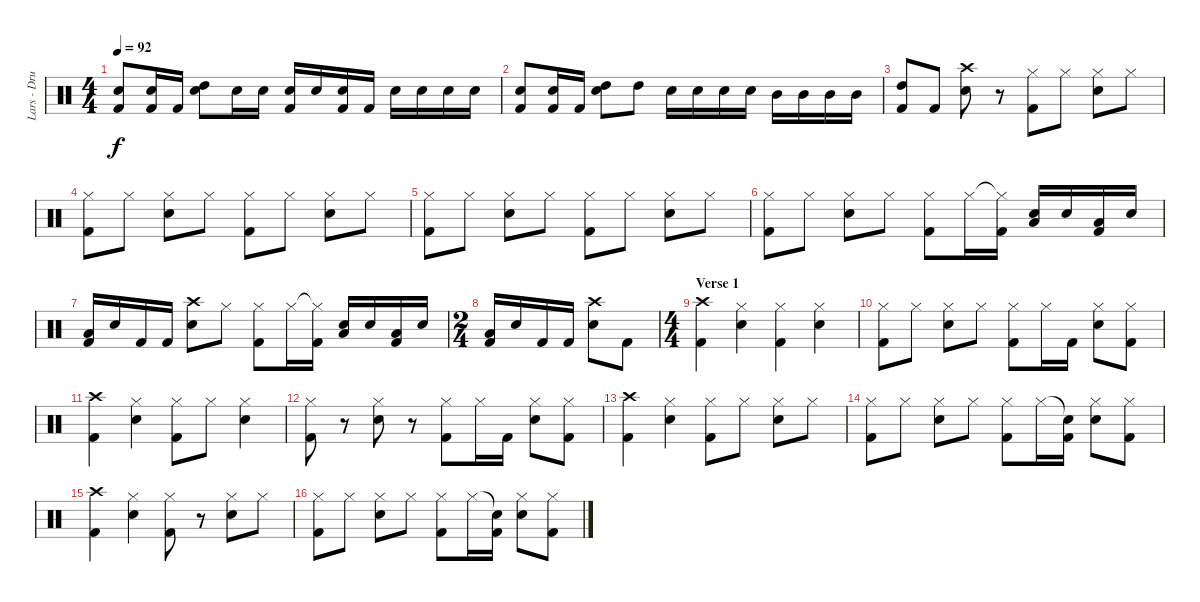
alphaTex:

\track ("Lars - Drums" "Lars - Dru") {instrument percussion}
\staff {score}
\articulation defaults
\ts (4 4)
\tempo 92
\clef neutral
\ks c
("Electric Snare (hit)" "Kick (hit) 2").8{dy f} ("Electric Snare (hit)" "Kick (hit) 2").16 "Kick (hit) 2".16 ("High Tom (hit)" "Electric Snare (hit)").8 "Electric Snare (hit)".16 "Electric Snare (hit)".16 ("Electric Snare (hit)" "Kick (hit) 2").16 "Electric Snare (hit)".16 ("Electric Snare (hit)" "Kick (hit) 2").16 "Kick (hit) 2".16 "Electric Snare (hit)".16 "Electric Snare (hit)".16 "Electric Snare (hit)".16 "Electric Snare (hit)".16 |
("Electric Snare (hit)" "Kick (hit) 2").8 ("Electric Snare (hit)" "Kick (hit) 2").16 "Kick (hit) 2".16 ("High Tom (hit)" "Electric Snare (hit)").8 "High Tom (hit)".8 "Electric Snare (hit)".16 "Electric Snare (hit)".16 "Electric Snare (hit)".16 "Electric Snare (hit)".16 "Mid Tom (hit)".16 "Mid Tom (hit)".16 "Mid Tom (hit)".16 "Mid Tom (hit)".16 |
("High Tom (hit)" "Kick (hit) 2").8 "Kick (hit) 2".8 ("Crash high (hit)" "Electric Snare (hit)").8 r.8 ("Hi-Hat (closed)" "Kick (hit) 2").8 "Hi-Hat (closed)".8 ("Hi-Hat (closed)" "Electric Snare (hit)").8 "Hi-Hat (closed)".8 |
("Hi-Hat (closed)" "Kick (hit) 2").8 "Hi-Hat (closed)".8 ("Hi-Hat (closed)" "Electric Snare (hit)").8 "Hi-Hat (closed)".8 ("Hi-Hat (closed)" "Kick (hit) 2").8 "Hi-Hat (closed)".8 ("Hi-Hat (closed)" "Electric Snare (hit)").8 "Hi-Hat (closed)".8 |
("Hi-Hat (closed)" "Kick (hit) 2").8 "Hi-Hat (closed)".8 ("Hi-Hat (closed)" "Electric Snare (hit)").8 "Hi-Hat (closed)".8 ("Hi-Hat (closed)" "Kick (hit) 2").8 "Hi-Hat (closed)".8 ("Hi-Hat (closed)" "Electric Snare (hit)").8 "Hi-Hat (closed)".8 |
("Hi-Hat (closed)" "Kick (hit) 2").8 "Hi-Hat (closed)".8 ("Hi-Hat (closed)" "Electric Snare (hit)").8 "Hi-Hat (closed)".8 ("Hi-Hat (closed)" "Kick (hit) 2").8 "Hi-Hat (closed)".16 ("Hi-Hat (closed)"{t} "Kick (hit) 2").16 ("Low Tom (hit)" "Electric Snare (hit)").16 "Electric Snare (hit)".16 ("Low Tom (hit)" "Kick (hit) 2").16 "Electric Snare (hit)".16 |
("Low Tom (hit)" "Kick (hit) 2").16 "Electric Snare (hit)".16 "Kick (hit) 2".16 "Kick (hit) 2".16 ("Crash high (hit)" "Electric Snare (hit)").8 "Hi-Hat (closed)".8 ("Hi-Hat (closed)" "Kick (hit) 2").8 "Hi-Hat (closed)".16 ("Hi-Hat (closed)"{t} "Kick (hit) 2").16 ("Low Tom (hit)" "Electric Snare (hit)").16 "Electric Snare (hit)".16 ("Low Tom (hit)" "Kick (hit) 2").16 "Electric Snare (hit)".16 |
\ts (2 4)
("Low Tom (hit)" "Kick (hit) 2").16 "Electric Snare (hit)".16 "Kick (hit) 2".16 "Kick (hit) 2".16 ("Crash high (hit)" "Electric Snare (hit)").8 "Kick (hit) 2".8 |
\ts (4 4)
\section ("" "Verse 1")
("Crash high (hit)" "Kick (hit) 2").4 ("Hi-Hat (closed)" "Electric Snare (hit)").4 ("Hi-Hat (closed)" "Kick (hit) 2").4 ("Hi-Hat (closed)" "Electric Snare (hit)").4 |
("Hi-Hat (closed)" "Kick (hit) 2").8 "Hi-Hat (closed)".8 ("Hi-Hat (closed)" "Electric Snare (hit)").8 "Hi-Hat (closed)".8 ("Hi-Hat (closed)" "Kick (hit) 2").8 "Hi-Hat (closed)".16 "Kick (hit) 2".16 ("Hi-Hat (closed)" "Electric Snare (hit)").8 ("Hi-Hat (closed)" "Kick (hit) 2").8 |
("Crash high (hit)" "Kick (hit) 2").4 ("Hi-Hat (closed)" "Electric Snare (hit)").4 ("Hi-Hat (closed)" "Kick (hit) 2").8 "Hi-Hat (closed)".8 ("Hi-Hat (closed)" "Electric Snare (hit)").4 |
("Hi-Hat (closed)" "Kick (hit) 2").8 r.8 ("Hi-Hat (closed)" "Electric Snare (hit)").8 r.8 ("Hi-Hat (closed)" "Kick (hit) 2").8 "Hi-Hat (closed)".16 "Kick (hit) 2".16 ("Hi-Hat (closed)" "Electric Snare (hit)").8 ("Hi-Hat (closed)" "Kick (hit) 2").8 |
("Crash high (hit)" "Kick (hit) 2").4 ("Hi-Hat (closed)" "Electric Snare (hit)").4 ("Hi-Hat (closed)" "Kick (hit) 2").8 "Hi-Hat (closed)".8 ("Hi-Hat (closed)" "Electric Snare (hit)").8 "Hi-Hat (closed)".8 |
("Hi-Hat (closed)" "Kick (hit) 2").8 "Hi-Hat (closed)".8 ("Hi-Hat (closed)" "Electric Snare (hit)").8 "Hi-Hat (closed)".8 ("Hi-Hat (closed)" "Kick (hit) 2").8 "Hi-Hat (closed)".16 ("Snare (hit)"{t} "Kick (hit) 2").16 ("Hi-Hat (closed)" "Electric Snare (hit)").8 ("Hi-Hat (closed)" "Kick (hit) 2").8 |
("Crash high (hit)" "Kick (hit) 2").4 ("Hi-Hat (closed)" "Electric Snare (hit)").4 ("Hi-Hat (closed)" "Kick (hit) 2").8 r.8 ("Hi-Hat (closed)" "Electric Snare (hit)").8 "Hi-Hat (closed)".8 |
("Hi-Hat (closed)" "Kick (hit) 2").8 "Hi-Hat (closed)".8 ("Hi-Hat (closed)" "Electric Snare (hit)").8 "Hi-Hat (closed)".8 ("Hi-Hat (closed)" "Kick (hit) 2").8 "Hi-Hat (closed)".16 ("Snare (hit)"{t} "Kick (hit) 2").16 ("Hi-Hat (closed)" "Electric Snare (hit)").8 ("Hi-Hat (closed)" "Kick (hit) 2").8
